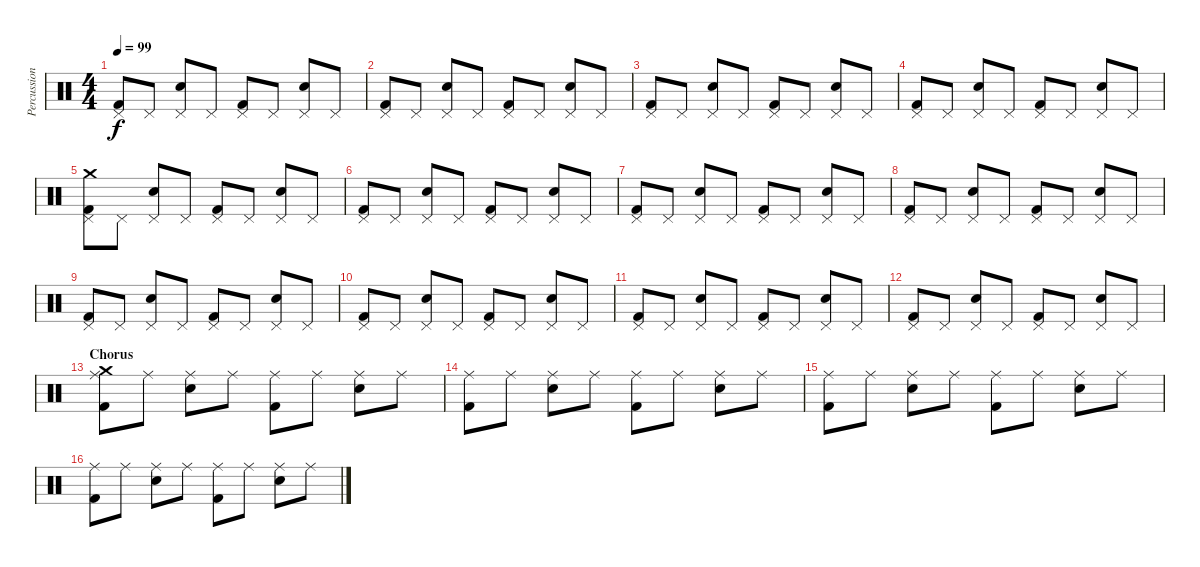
\track ("Percussion" "Percussion") {instrument percussion}
\staff {score}
\articulation defaults
\ts (4 4)
\tempo 99
\clef neutral
\ks c
("Pedal Hi-Hat (hit)" "Kick (hit) 2").8{dy f} "Pedal Hi-Hat (hit)".8 ("Pedal Hi-Hat (hit)" "Electric Snare (hit)").8 "Pedal Hi-Hat (hit)".8 ("Pedal Hi-Hat (hit)" "Kick (hit) 2").8 "Pedal Hi-Hat (hit)".8 ("Pedal Hi-Hat (hit)" "Electric Snare (hit)").8 "Pedal Hi-Hat (hit)".8 |
("Pedal Hi-Hat (hit)" "Kick (hit) 2").8 "Pedal Hi-Hat (hit)".8 ("Pedal Hi-Hat (hit)" "Electric Snare (hit)").8 "Pedal Hi-Hat (hit)".8 ("Pedal Hi-Hat (hit)" "Kick (hit) 2").8 "Pedal Hi-Hat (hit)".8 ("Pedal Hi-Hat (hit)" "Electric Snare (hit)").8 "Pedal Hi-Hat (hit)".8 |
("Pedal Hi-Hat (hit)" "Kick (hit) 2").8 "Pedal Hi-Hat (hit)".8 ("Pedal Hi-Hat (hit)" "Electric Snare (hit)").8 "Pedal Hi-Hat (hit)".8 ("Pedal Hi-Hat (hit)" "Kick (hit) 2").8 "Pedal Hi-Hat (hit)".8 ("Pedal Hi-Hat (hit)" "Electric Snare (hit)").8 "Pedal Hi-Hat (hit)".8 |
("Pedal Hi-Hat (hit)" "Kick (hit) 2").8 "Pedal Hi-Hat (hit)".8 ("Pedal Hi-Hat (hit)" "Electric Snare (hit)").8 "Pedal Hi-Hat (hit)".8 ("Pedal Hi-Hat (hit)" "Kick (hit) 2").8 "Pedal Hi-Hat (hit)".8 ("Pedal Hi-Hat (hit)" "Electric Snare (hit)").8 "Pedal Hi-Hat (hit)".8 |
("Crash medium (hit)" "Pedal Hi-Hat (hit)" "Kick (hit) 2").8 "Pedal Hi-Hat (hit)".8 ("Pedal Hi-Hat (hit)" "Electric Snare (hit)").8 "Pedal Hi-Hat (hit)".8 ("Pedal Hi-Hat (hit)" "Kick (hit) 2").8 "Pedal Hi-Hat (hit)".8 ("Pedal Hi-Hat (hit)" "Electric Snare (hit)").8 "Pedal Hi-Hat (hit)".8 |
("Pedal Hi-Hat (hit)" "Kick (hit) 2").8 "Pedal Hi-Hat (hit)".8 ("Pedal Hi-Hat (hit)" "Electric Snare (hit)").8 "Pedal Hi-Hat (hit)".8 ("Pedal Hi-Hat (hit)" "Kick (hit) 2").8 "Pedal Hi-Hat (hit)".8 ("Pedal Hi-Hat (hit)" "Electric Snare (hit)").8 "Pedal Hi-Hat (hit)".8 |
("Pedal Hi-Hat (hit)" "Kick (hit) 2").8 "Pedal Hi-Hat (hit)".8 ("Pedal Hi-Hat (hit)" "Electric Snare (hit)").8 "Pedal Hi-Hat (hit)".8 ("Pedal Hi-Hat (hit)" "Kick (hit) 2").8 "Pedal Hi-Hat (hit)".8 ("Pedal Hi-Hat (hit)" "Electric Snare (hit)").8 "Pedal Hi-Hat (hit)".8 |
("Pedal Hi-Hat (hit)" "Kick (hit) 2").8 "Pedal Hi-Hat (hit)".8 ("Pedal Hi-Hat (hit)" "Electric Snare (hit)").8 "Pedal Hi-Hat (hit)".8 ("Pedal Hi-Hat (hit)" "Kick (hit) 2").8 "Pedal Hi-Hat (hit)".8 ("Pedal Hi-Hat (hit)" "Electric Snare (hit)").8 "Pedal Hi-Hat (hit)".8 |
("Pedal Hi-Hat (hit)" "Kick (hit) 2").8 "Pedal Hi-Hat (hit)".8 ("Pedal Hi-Hat (hit)" "Electric Snare (hit)").8 "Pedal Hi-Hat (hit)".8 ("Pedal Hi-Hat (hit)" "Kick (hit) 2").8 "Pedal Hi-Hat (hit)".8 ("Pedal Hi-Hat (hit)" "Electric Snare (hit)").8 "Pedal Hi-Hat (hit)".8 |
("Pedal Hi-Hat (hit)" "Kick (hit) 2").8 "Pedal Hi-Hat (hit)".8 ("Pedal Hi-Hat (hit)" "Electric Snare (hit)").8 "Pedal Hi-Hat (hit)".8 ("Pedal Hi-Hat (hit)" "Kick (hit) 2").8 "Pedal Hi-Hat (hit)".8 ("Pedal Hi-Hat (hit)" "Electric Snare (hit)").8 "Pedal Hi-Hat (hit)".8 |
("Pedal Hi-Hat (hit)" "Kick (hit) 2").8 "Pedal Hi-Hat (hit)".8 ("Pedal Hi-Hat (hit)" "Electric Snare (hit)").8 "Pedal Hi-Hat (hit)".8 ("Pedal Hi-Hat (hit)" "Kick (hit) 2").8 "Pedal Hi-Hat (hit)".8 ("Pedal Hi-Hat (hit)" "Electric Snare (hit)").8 "Pedal Hi-Hat (hit)".8 |
("Pedal Hi-Hat (hit)" "Kick (hit) 2").8 "Pedal Hi-Hat (hit)".8 ("Pedal Hi-Hat (hit)" "Electric Snare (hit)").8 "Pedal Hi-Hat (hit)".8 ("Pedal Hi-Hat (hit)" "Kick (hit) 2").8 "Pedal Hi-Hat (hit)".8 ("Pedal Hi-Hat (hit)" "Electric Snare (hit)").8 "Pedal Hi-Hat (hit)".8 |
\section ("" "Chorus")
("Crash medium (hit)" "Ride (middle)" "Kick (hit) 2").8 "Ride (middle)".8 ("Ride (middle)" "Electric Snare (hit)").8 "Ride (middle)".8 ("Ride (middle)" "Kick (hit) 2").8 "Ride (middle)".8 ("Ride (middle)" "Electric Snare (hit)").8 "Ride (middle)".8 |
("Ride (middle)" "Kick (hit) 2").8 "Ride (middle)".8 ("Ride (middle)" "Electric Snare (hit)").8 "Ride (middle)".8 ("Ride (middle)" "Kick (hit) 2").8 "Ride (middle)".8 ("Ride (middle)" "Electric Snare (hit)").8 "Ride (middle)".8 |
("Ride (middle)" "Kick (hit) 2").8 "Ride (middle)".8 ("Ride (middle)" "Electric Snare (hit)").8 "Ride (middle)".8 ("Ride (middle)" "Kick (hit) 2").8 "Ride (middle)".8 ("Ride (middle)" "Electric Snare (hit)").8 "Ride (middle)".8 |
("Ride (middle)" "Kick (hit) 2").8 "Ride (middle)".8 ("Ride (middle)" "Electric Snare (hit)").8 "Ride (middle)".8 ("Ride (middle)" "Kick (hit) 2").8 "Ride (middle)".8 ("Ride (middle)" "Electric Snare (hit)").8 "Ride (middle)".8
